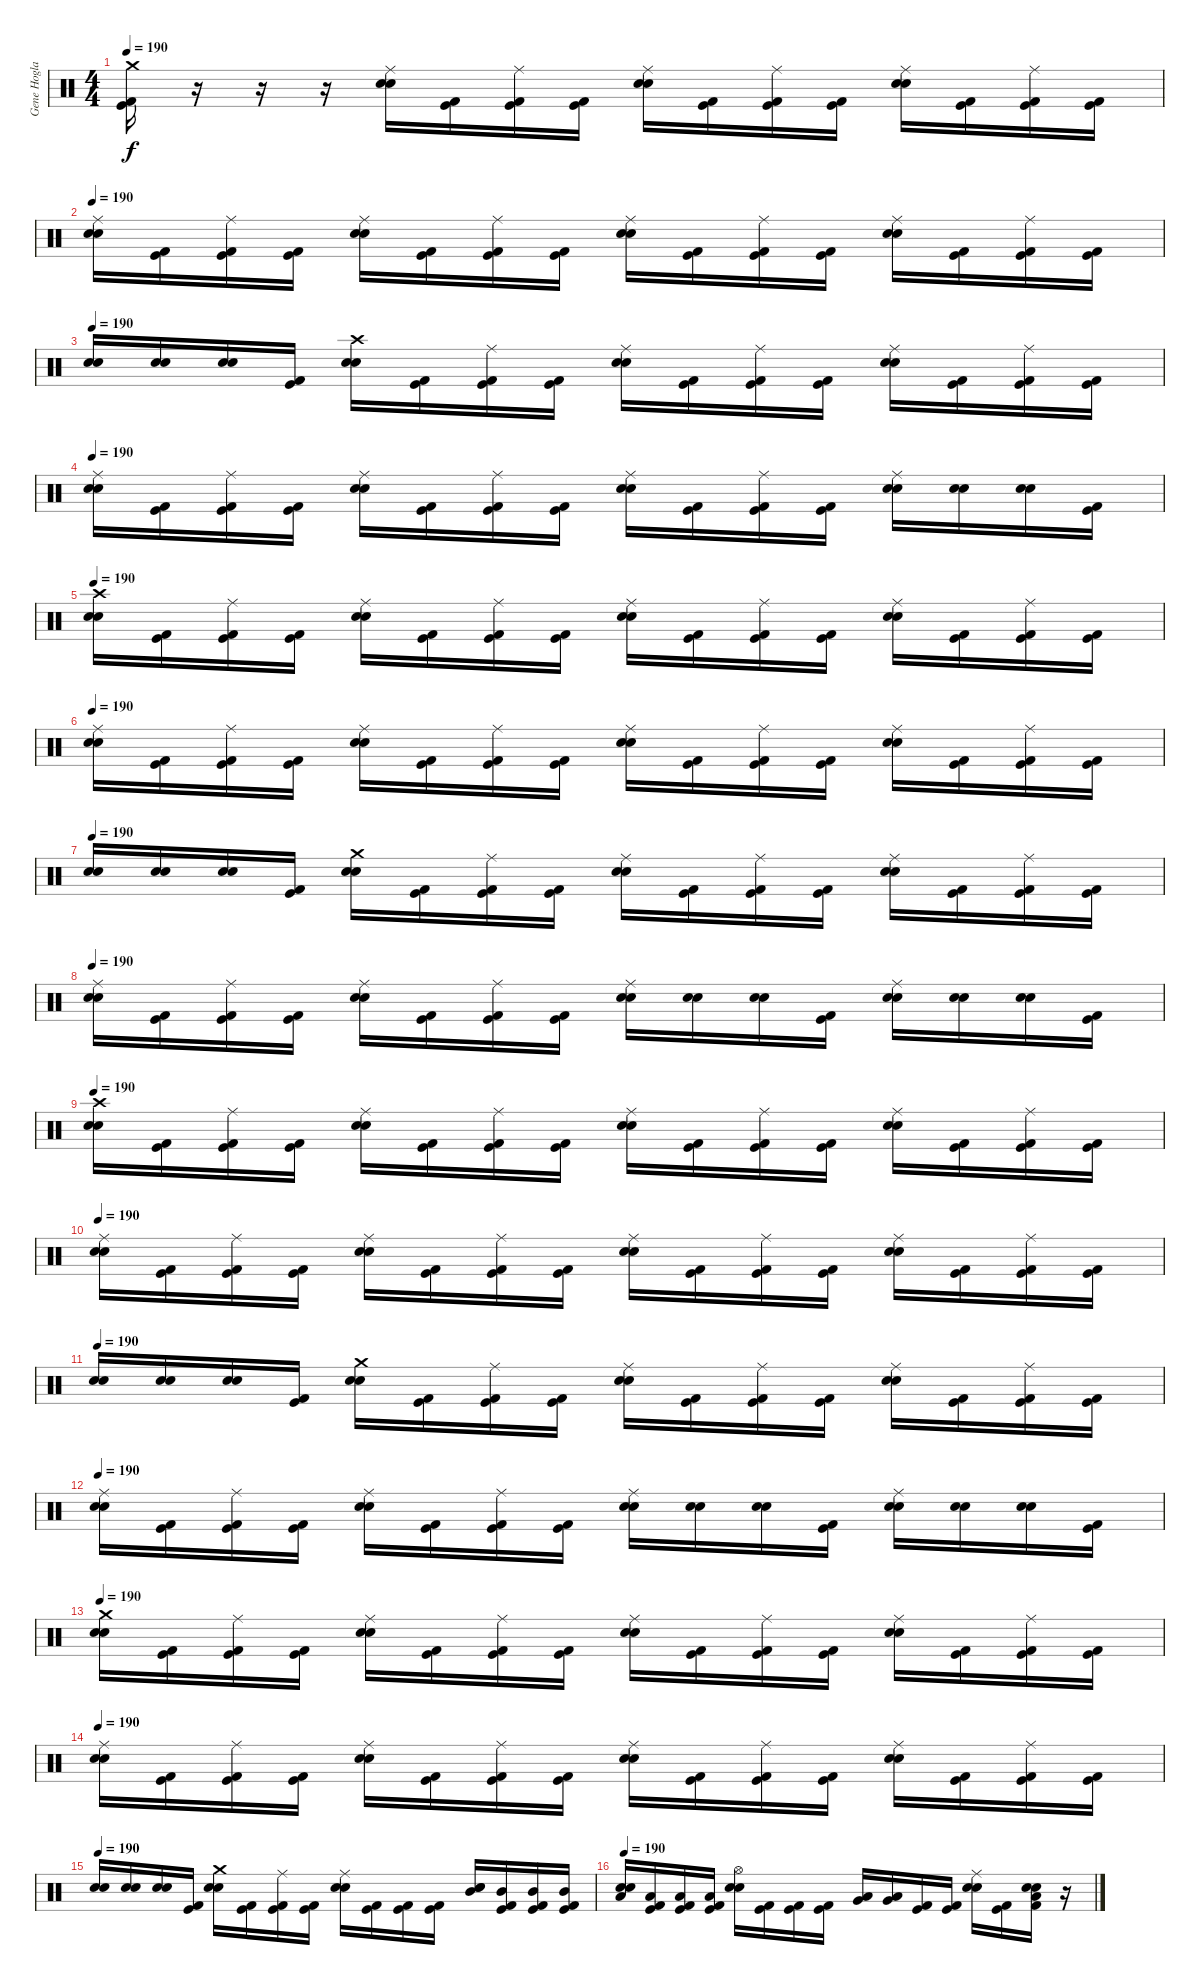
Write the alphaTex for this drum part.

\track ("Gene Hoglan" "Gene Hogla") {instrument percussion}
\staff {score}
\articulation defaults
\ts (4 4)
\tempo 190
\clef neutral
\ks c
("Crash medium (hit)" "Kick (hit) 2" "Kick (hit)").16{dy f} r.16 r.16 r.16 ("Ride (middle)" "Snare (hit) 2" "Electric Snare (hit)").16 ("Kick (hit) 2" "Kick (hit)").16 ("Ride (middle)" "Kick (hit) 2" "Kick (hit)").16 ("Kick (hit) 2" "Kick (hit)").16 ("Ride (middle)" "Snare (hit) 2" "Electric Snare (hit)").16 ("Kick (hit) 2" "Kick (hit)").16 ("Ride (middle)" "Kick (hit) 2" "Kick (hit)").16 ("Kick (hit) 2" "Kick (hit)").16 ("Ride (middle)" "Snare (hit) 2" "Electric Snare (hit)").16 ("Kick (hit) 2" "Kick (hit)").16 ("Ride (middle)" "Kick (hit) 2" "Kick (hit)").16 ("Kick (hit) 2" "Kick (hit)").16 |
\tempo 190
("Ride (middle)" "Snare (hit) 2" "Electric Snare (hit)").16 ("Kick (hit) 2" "Kick (hit)").16 ("Ride (middle)" "Kick (hit) 2" "Kick (hit)").16 ("Kick (hit) 2" "Kick (hit)").16 ("Ride (middle)" "Snare (hit) 2" "Electric Snare (hit)").16 ("Kick (hit) 2" "Kick (hit)").16 ("Ride (middle)" "Kick (hit) 2" "Kick (hit)").16 ("Kick (hit) 2" "Kick (hit)").16 ("Ride (middle)" "Snare (hit) 2" "Electric Snare (hit)").16 ("Kick (hit) 2" "Kick (hit)").16 ("Ride (middle)" "Kick (hit) 2" "Kick (hit)").16 ("Kick (hit) 2" "Kick (hit)").16 ("Ride (middle)" "Snare (hit) 2" "Electric Snare (hit)").16 ("Kick (hit) 2" "Kick (hit)").16 ("Ride (middle)" "Kick (hit) 2" "Kick (hit)").16 ("Kick (hit) 2" "Kick (hit)").16 |
\tempo 190
("Electric Snare (hit)" "Snare (hit) 2").16 ("Electric Snare (hit)" "Snare (hit) 2").16 ("Electric Snare (hit)" "Snare (hit) 2").16 ("Kick (hit) 2" "Kick (hit)").16 ("Crash high (hit)" "Snare (hit) 2" "Electric Snare (hit)").16 ("Kick (hit) 2" "Kick (hit)").16 ("Ride (middle)" "Kick (hit) 2" "Kick (hit)").16 ("Kick (hit) 2" "Kick (hit)").16 ("Ride (middle)" "Snare (hit) 2" "Electric Snare (hit)").16 ("Kick (hit) 2" "Kick (hit)").16 ("Ride (middle)" "Kick (hit) 2" "Kick (hit)").16 ("Kick (hit) 2" "Kick (hit)").16 ("Ride (middle)" "Snare (hit) 2" "Electric Snare (hit)").16 ("Kick (hit) 2" "Kick (hit)").16 ("Ride (middle)" "Kick (hit) 2" "Kick (hit)").16 ("Kick (hit) 2" "Kick (hit)").16 |
\tempo 190
("Ride (middle)" "Snare (hit) 2" "Electric Snare (hit)").16 ("Kick (hit) 2" "Kick (hit)").16 ("Ride (middle)" "Kick (hit) 2" "Kick (hit)").16 ("Kick (hit) 2" "Kick (hit)").16 ("Ride (middle)" "Snare (hit) 2" "Electric Snare (hit)").16 ("Kick (hit) 2" "Kick (hit)").16 ("Ride (middle)" "Kick (hit) 2" "Kick (hit)").16 ("Kick (hit) 2" "Kick (hit)").16 ("Ride (middle)" "Snare (hit) 2" "Electric Snare (hit)").16 ("Kick (hit) 2" "Kick (hit)").16 ("Ride (middle)" "Kick (hit) 2" "Kick (hit)").16 ("Kick (hit) 2" "Kick (hit)").16 ("Ride (middle)" "Snare (hit) 2" "Electric Snare (hit)").16 ("Snare (hit) 2" "Electric Snare (hit)").16 ("Snare (hit) 2" "Electric Snare (hit)").16 ("Kick (hit) 2" "Kick (hit)").16 |
\tempo 190
("Crash high (hit)" "Snare (hit) 2" "Electric Snare (hit)").16 ("Kick (hit) 2" "Kick (hit)").16 ("Ride (middle)" "Kick (hit) 2" "Kick (hit)").16 ("Kick (hit) 2" "Kick (hit)").16 ("Ride (middle)" "Snare (hit) 2" "Electric Snare (hit)").16 ("Kick (hit) 2" "Kick (hit)").16 ("Ride (middle)" "Kick (hit) 2" "Kick (hit)").16 ("Kick (hit) 2" "Kick (hit)").16 ("Ride (middle)" "Snare (hit) 2" "Electric Snare (hit)").16 ("Kick (hit) 2" "Kick (hit)").16 ("Ride (middle)" "Kick (hit) 2" "Kick (hit)").16 ("Kick (hit) 2" "Kick (hit)").16 ("Ride (middle)" "Snare (hit) 2" "Electric Snare (hit)").16 ("Kick (hit) 2" "Kick (hit)").16 ("Ride (middle)" "Kick (hit) 2" "Kick (hit)").16 ("Kick (hit) 2" "Kick (hit)").16 |
\tempo 190
("Ride (middle)" "Snare (hit) 2" "Electric Snare (hit)").16 ("Kick (hit) 2" "Kick (hit)").16 ("Ride (middle)" "Kick (hit) 2" "Kick (hit)").16 ("Kick (hit) 2" "Kick (hit)").16 ("Ride (middle)" "Snare (hit) 2" "Electric Snare (hit)").16 ("Kick (hit) 2" "Kick (hit)").16 ("Ride (middle)" "Kick (hit) 2" "Kick (hit)").16 ("Kick (hit) 2" "Kick (hit)").16 ("Ride (middle)" "Snare (hit) 2" "Electric Snare (hit)").16 ("Kick (hit) 2" "Kick (hit)").16 ("Ride (middle)" "Kick (hit) 2" "Kick (hit)").16 ("Kick (hit) 2" "Kick (hit)").16 ("Ride (middle)" "Snare (hit) 2" "Electric Snare (hit)").16 ("Kick (hit) 2" "Kick (hit)").16 ("Ride (middle)" "Kick (hit) 2" "Kick (hit)").16 ("Kick (hit) 2" "Kick (hit)").16 |
\tempo 190
("Electric Snare (hit)" "Snare (hit) 2").16 ("Electric Snare (hit)" "Snare (hit) 2").16 ("Electric Snare (hit)" "Snare (hit) 2").16 ("Kick (hit) 2" "Kick (hit)").16 ("Crash medium (hit)" "Snare (hit) 2" "Electric Snare (hit)").16 ("Kick (hit) 2" "Kick (hit)").16 ("Ride (middle)" "Kick (hit) 2" "Kick (hit)").16 ("Kick (hit) 2" "Kick (hit)").16 ("Ride (middle)" "Snare (hit) 2" "Electric Snare (hit)").16 ("Kick (hit) 2" "Kick (hit)").16 ("Ride (middle)" "Kick (hit) 2" "Kick (hit)").16 ("Kick (hit) 2" "Kick (hit)").16 ("Ride (middle)" "Snare (hit) 2" "Electric Snare (hit)").16 ("Kick (hit) 2" "Kick (hit)").16 ("Ride (middle)" "Kick (hit) 2" "Kick (hit)").16 ("Kick (hit) 2" "Kick (hit)").16 |
\tempo 190
("Ride (middle)" "Snare (hit) 2" "Electric Snare (hit)").16 ("Kick (hit) 2" "Kick (hit)").16 ("Ride (middle)" "Kick (hit) 2" "Kick (hit)").16 ("Kick (hit) 2" "Kick (hit)").16 ("Ride (middle)" "Snare (hit) 2" "Electric Snare (hit)").16 ("Kick (hit) 2" "Kick (hit)").16 ("Ride (middle)" "Kick (hit) 2" "Kick (hit)").16 ("Kick (hit) 2" "Kick (hit)").16 ("Ride (middle)" "Snare (hit) 2" "Electric Snare (hit)").16 ("Snare (hit) 2" "Electric Snare (hit)").16 ("Snare (hit) 2" "Electric Snare (hit)").16 ("Kick (hit) 2" "Kick (hit)").16 ("Ride (middle)" "Snare (hit) 2" "Electric Snare (hit)").16 ("Snare (hit) 2" "Electric Snare (hit)").16 ("Snare (hit) 2" "Electric Snare (hit)").16 ("Kick (hit) 2" "Kick (hit)").16 |
\tempo 190
("Crash high (hit)" "Snare (hit) 2" "Electric Snare (hit)").16 ("Kick (hit) 2" "Kick (hit)").16 ("Ride (middle)" "Kick (hit) 2" "Kick (hit)").16 ("Kick (hit) 2" "Kick (hit)").16 ("Ride (middle)" "Snare (hit) 2" "Electric Snare (hit)").16 ("Kick (hit) 2" "Kick (hit)").16 ("Ride (middle)" "Kick (hit) 2" "Kick (hit)").16 ("Kick (hit) 2" "Kick (hit)").16 ("Ride (middle)" "Snare (hit) 2" "Electric Snare (hit)").16 ("Kick (hit) 2" "Kick (hit)").16 ("Ride (middle)" "Kick (hit) 2" "Kick (hit)").16 ("Kick (hit) 2" "Kick (hit)").16 ("Ride (middle)" "Snare (hit) 2" "Electric Snare (hit)").16 ("Kick (hit) 2" "Kick (hit)").16 ("Ride (middle)" "Kick (hit) 2" "Kick (hit)").16 ("Kick (hit) 2" "Kick (hit)").16 |
\tempo 190
("Ride (middle)" "Snare (hit) 2" "Electric Snare (hit)").16 ("Kick (hit) 2" "Kick (hit)").16 ("Ride (middle)" "Kick (hit) 2" "Kick (hit)").16 ("Kick (hit) 2" "Kick (hit)").16 ("Ride (middle)" "Snare (hit) 2" "Electric Snare (hit)").16 ("Kick (hit) 2" "Kick (hit)").16 ("Ride (middle)" "Kick (hit) 2" "Kick (hit)").16 ("Kick (hit) 2" "Kick (hit)").16 ("Ride (middle)" "Snare (hit) 2" "Electric Snare (hit)").16 ("Kick (hit) 2" "Kick (hit)").16 ("Ride (middle)" "Kick (hit) 2" "Kick (hit)").16 ("Kick (hit) 2" "Kick (hit)").16 ("Ride (middle)" "Snare (hit) 2" "Electric Snare (hit)").16 ("Kick (hit) 2" "Kick (hit)").16 ("Ride (middle)" "Kick (hit) 2" "Kick (hit)").16 ("Kick (hit) 2" "Kick (hit)").16 |
\tempo 190
("Electric Snare (hit)" "Snare (hit) 2").16 ("Electric Snare (hit)" "Snare (hit) 2").16 ("Electric Snare (hit)" "Snare (hit) 2").16 ("Kick (hit) 2" "Kick (hit)").16 ("Crash medium (hit)" "Snare (hit) 2" "Electric Snare (hit)").16 ("Kick (hit) 2" "Kick (hit)").16 ("Ride (middle)" "Kick (hit) 2" "Kick (hit)").16 ("Kick (hit) 2" "Kick (hit)").16 ("Ride (middle)" "Snare (hit) 2" "Electric Snare (hit)").16 ("Kick (hit) 2" "Kick (hit)").16 ("Ride (middle)" "Kick (hit) 2" "Kick (hit)").16 ("Kick (hit) 2" "Kick (hit)").16 ("Ride (middle)" "Snare (hit) 2" "Electric Snare (hit)").16 ("Kick (hit) 2" "Kick (hit)").16 ("Ride (middle)" "Kick (hit) 2" "Kick (hit)").16 ("Kick (hit) 2" "Kick (hit)").16 |
\tempo 190
("Ride (middle)" "Snare (hit) 2" "Electric Snare (hit)").16 ("Kick (hit) 2" "Kick (hit)").16 ("Ride (middle)" "Kick (hit) 2" "Kick (hit)").16 ("Kick (hit) 2" "Kick (hit)").16 ("Ride (middle)" "Snare (hit) 2" "Electric Snare (hit)").16 ("Kick (hit) 2" "Kick (hit)").16 ("Ride (middle)" "Kick (hit) 2" "Kick (hit)").16 ("Kick (hit) 2" "Kick (hit)").16 ("Ride (middle)" "Snare (hit) 2" "Electric Snare (hit)").16 ("Snare (hit) 2" "Electric Snare (hit)").16 ("Snare (hit) 2" "Electric Snare (hit)").16 ("Kick (hit) 2" "Kick (hit)").16 ("Ride (middle)" "Snare (hit) 2" "Electric Snare (hit)").16 ("Snare (hit) 2" "Electric Snare (hit)").16 ("Snare (hit) 2" "Electric Snare (hit)").16 ("Kick (hit) 2" "Kick (hit)").16 |
\tempo 190
("Crash medium (hit)" "Snare (hit) 2" "Electric Snare (hit)").16 ("Kick (hit) 2" "Kick (hit)").16 ("Ride (middle)" "Kick (hit) 2" "Kick (hit)").16 ("Kick (hit) 2" "Kick (hit)").16 ("Ride (middle)" "Snare (hit) 2" "Electric Snare (hit)").16 ("Kick (hit) 2" "Kick (hit)").16 ("Ride (middle)" "Kick (hit) 2" "Kick (hit)").16 ("Kick (hit) 2" "Kick (hit)").16 ("Ride (middle)" "Snare (hit) 2" "Electric Snare (hit)").16 ("Kick (hit) 2" "Kick (hit)").16 ("Ride (middle)" "Kick (hit) 2" "Kick (hit)").16 ("Kick (hit) 2" "Kick (hit)").16 ("Ride (middle)" "Snare (hit) 2" "Electric Snare (hit)").16 ("Kick (hit) 2" "Kick (hit)").16 ("Ride (middle)" "Kick (hit) 2" "Kick (hit)").16 ("Kick (hit) 2" "Kick (hit)").16 |
\tempo 190
("Ride (middle)" "Snare (hit) 2" "Electric Snare (hit)").16 ("Kick (hit) 2" "Kick (hit)").16 ("Ride (middle)" "Kick (hit) 2" "Kick (hit)").16 ("Kick (hit) 2" "Kick (hit)").16 ("Ride (middle)" "Snare (hit) 2" "Electric Snare (hit)").16 ("Kick (hit) 2" "Kick (hit)").16 ("Ride (middle)" "Kick (hit) 2" "Kick (hit)").16 ("Kick (hit) 2" "Kick (hit)").16 ("Ride (middle)" "Snare (hit) 2" "Electric Snare (hit)").16 ("Kick (hit) 2" "Kick (hit)").16 ("Ride (middle)" "Kick (hit) 2" "Kick (hit)").16 ("Kick (hit) 2" "Kick (hit)").16 ("Ride (middle)" "Snare (hit) 2" "Electric Snare (hit)").16 ("Kick (hit) 2" "Kick (hit)").16 ("Ride (middle)" "Kick (hit) 2" "Kick (hit)").16 ("Kick (hit) 2" "Kick (hit)").16 |
\tempo 190
("Electric Snare (hit)" "Snare (hit) 2").16 ("Electric Snare (hit)" "Snare (hit) 2").16 ("Electric Snare (hit)" "Snare (hit) 2").16 ("Kick (hit) 2" "Kick (hit)").16 ("Crash medium (hit)" "Snare (hit) 2" "Electric Snare (hit)").16 ("Kick (hit) 2" "Kick (hit)").16 ("Ride (middle)" "Kick (hit) 2" "Kick (hit)").16 ("Kick (hit) 2" "Kick (hit)").16 ("Ride (middle)" "Snare (hit) 2" "Electric Snare (hit)").16 ("Kick (hit) 2" "Kick (hit)").16 ("Kick (hit) 2" "Kick (hit)").16 ("Kick (hit) 2" "Kick (hit)").16 ("Mid Tom (hit)" "Snare (hit) 2" "Electric Snare (hit)").16 ("Mid Tom (hit)" "Kick (hit) 2" "Kick (hit)").16 ("Mid Tom (hit)" "Kick (hit) 2" "Kick (hit)").16 ("Mid Tom (hit)" "Kick (hit) 2" "Kick (hit)").16 |
\tempo 190
("Low Tom (hit)" "Snare (hit) 2" "Electric Snare (hit)").16 ("Low Tom (hit)" "Kick (hit) 2" "Kick (hit)").16 ("Low Tom (hit)" "Kick (hit) 2" "Kick (hit)").16 ("Low Tom (hit)" "Kick (hit) 2" "Kick (hit)").16 ("Hi-Hat (open)" "Snare (hit) 2" "Electric Snare (hit)").16 ("Kick (hit) 2" "Kick (hit)").16 ("Kick (hit) 2" "Kick (hit)").16 ("Kick (hit) 2" "Kick (hit)").16 ("Low Tom (hit)" "Very Low Tom (hit)").16 ("Low Tom (hit)" "Very Low Tom (hit)").16 ("Kick (hit) 2" "Kick (hit)").16 ("Kick (hit) 2" "Kick (hit)").16 ("Ride (middle)" "Snare (hit) 2" "Electric Snare (hit)").16 ("Kick (hit) 2" "Kick (hit)").16 ("Low Floor Tom (hit)" "Snare (hit) 2" "Electric Snare (hit)" "Kick (hit) 2").16 r.16
